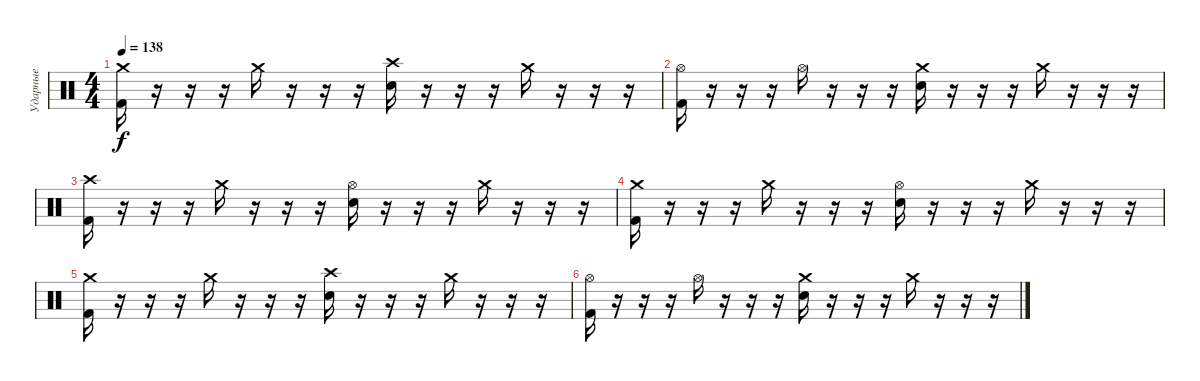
\track ("Ударные" "Ударные") {instrument percussion}
\staff {score}
\articulation defaults
\ts (4 4)
\tempo 138
\clef neutral
\ks c
("Crash medium (hit)" "Kick (hit) 2").16{dy f} r.16 r.16 r.16 "Crash medium (hit)".16 r.16 r.16 r.16 ("Crash high (hit)" "Snare (hit) 2").16 r.16 r.16 r.16 "Crash medium (hit)".16 r.16 r.16 r.16 |
("Hi-Hat (open)" "Kick (hit) 2").16 r.16 r.16 r.16 "Hi-Hat (open)".16 r.16 r.16 r.16 ("Crash medium (hit)" "Snare (hit) 2").16 r.16 r.16 r.16 "Crash medium (hit)".16 r.16 r.16 r.16 |
("Crash high (hit)" "Kick (hit) 2").16 r.16 r.16 r.16 "Crash medium (hit)".16 r.16 r.16 r.16 ("Hi-Hat (open)" "Snare (hit) 2").16 r.16 r.16 r.16 "Crash medium (hit)".16 r.16 r.16 r.16 |
("Crash medium (hit)" "Kick (hit) 2").16 r.16 r.16 r.16 "Crash medium (hit)".16 r.16 r.16 r.16 ("Hi-Hat (open)" "Snare (hit) 2").16 r.16 r.16 r.16 "Crash medium (hit)".16 r.16 r.16 r.16 |
("Crash medium (hit)" "Kick (hit) 2").16 r.16 r.16 r.16 "Crash medium (hit)".16 r.16 r.16 r.16 ("Crash high (hit)" "Snare (hit) 2").16 r.16 r.16 r.16 "Crash medium (hit)".16 r.16 r.16 r.16 |
("Hi-Hat (open)" "Kick (hit) 2").16 r.16 r.16 r.16 "Hi-Hat (open)".16 r.16 r.16 r.16 ("Crash medium (hit)" "Snare (hit) 2").16 r.16 r.16 r.16 "Crash medium (hit)".16 r.16 r.16 r.16
